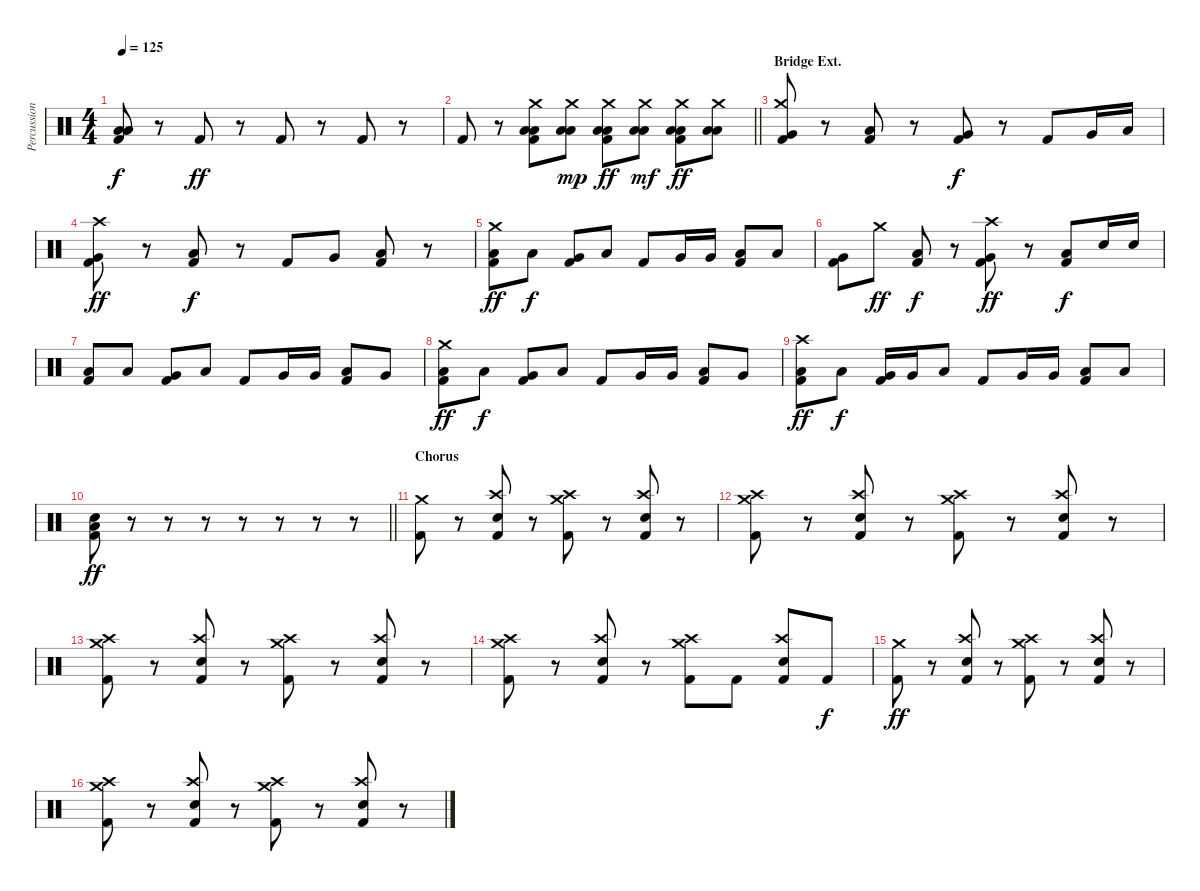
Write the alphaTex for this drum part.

\track ("Percussion" "Percussion") {instrument percussion}
\staff {score}
\articulation defaults
\ts (4 4)
\tempo 125
\clef neutral
\ks c
("Low Floor Tom (hit)" "Low Floor Tom (hit)" "Kick (hit) 2").8{dy f} r.8 "Kick (hit) 2".8{dy ff} r.8 "Kick (hit) 2".8 r.8 "Kick (hit) 2".8 r.8 |
\barLineRight lightlight "Kick (hit) 2".8
r.8 ("Crash medium (hit)" "Low Floor Tom (hit)" "Low Floor Tom (hit)" "Kick (hit) 2").8 ("Crash medium (hit)" "Low Floor Tom (hit)" "Low Floor Tom (hit)").8{dy mp} ("Crash medium (hit)" "Low Floor Tom (hit)" "Low Floor Tom (hit)" "Kick (hit) 2").8{dy ff} ("Crash medium (hit)" "Low Floor Tom (hit)" "Low Floor Tom (hit)").8{dy mf} ("Crash medium (hit)" "Low Floor Tom (hit)" "Low Floor Tom (hit)" "Kick (hit) 2").8{dy ff} ("Crash medium (hit)" "Low Floor Tom (hit)" "Low Floor Tom (hit)").8 |
\section ("" "Bridge Ext.")
("Crash medium (hit)" "Very Low Tom (hit)" "Kick (hit) 2").8 r.8 ("Low Floor Tom (hit)" "Kick (hit) 2").8 r.8 ("Very Low Tom (hit)" "Kick (hit) 2").8{dy f} r.8 "Kick (hit) 2".8 "Very Low Tom (hit)".16 "Low Floor Tom (hit)".16 |
("Crash high (hit)" "Very Low Tom (hit)" "Kick (hit) 2").8{dy ff} r.8 ("Low Floor Tom (hit)" "Kick (hit) 2").8{dy f} r.8 "Kick (hit) 2".8 "Very Low Tom (hit)".8 ("Low Floor Tom (hit)" "Kick (hit) 2").8 r.8 |
("Crash medium (hit)" "Low Floor Tom (hit)" "Kick (hit) 2").8{dy ff} "Low Floor Tom (hit)".8{dy f} ("Very Low Tom (hit)" "Kick (hit) 2").8 "Low Floor Tom (hit)".8 "Kick (hit) 2".8 "Very Low Tom (hit)".16 "Very Low Tom (hit)".16 ("Low Floor Tom (hit)" "Kick (hit) 2").8 "Low Floor Tom (hit)".8 |
("Very Low Tom (hit)" "Kick (hit) 2").8 "Crash medium (hit)".8{dy ff} ("Low Floor Tom (hit)" "Kick (hit) 2").8{dy f} r.8 ("Crash high (hit)" "Very Low Tom (hit)" "Kick (hit) 2").8{dy ff} r.8 ("Low Floor Tom (hit)" "Kick (hit) 2").8{dy f} "Electric Snare (hit)".16 "Electric Snare (hit)".16 |
("Low Floor Tom (hit)" "Kick (hit) 2").8 "Low Floor Tom (hit)".8 ("Very Low Tom (hit)" "Kick (hit) 2").8 "Low Floor Tom (hit)".8 "Kick (hit) 2".8 "Very Low Tom (hit)".16 "Very Low Tom (hit)".16 ("Low Floor Tom (hit)" "Kick (hit) 2").8 "Very Low Tom (hit)".8 |
("Crash medium (hit)" "Low Floor Tom (hit)" "Kick (hit) 2").8{dy ff} "Low Floor Tom (hit)".8{dy f} ("Very Low Tom (hit)" "Kick (hit) 2").8 "Low Floor Tom (hit)".8 "Kick (hit) 2".8 "Very Low Tom (hit)".16 "Very Low Tom (hit)".16 ("Low Floor Tom (hit)" "Kick (hit) 2").8 "Very Low Tom (hit)".8 |
("Crash high (hit)" "Low Floor Tom (hit)" "Kick (hit) 2").8{dy ff} "Low Floor Tom (hit)".8{dy f} ("Very Low Tom (hit)" "Kick (hit) 2").16 "Very Low Tom (hit)".16 "Low Floor Tom (hit)".8 "Kick (hit) 2".8 "Very Low Tom (hit)".16 "Very Low Tom (hit)".16 ("Low Floor Tom (hit)" "Kick (hit) 2").8 "Low Floor Tom (hit)".8 |
\barLineRight lightlight
("Electric Snare (hit)" "Low Floor Tom (hit)" "Kick (hit) 2").8{dy ff} r.8 r.8 r.8 r.8 r.8 r.8 r.8 |
\section ("" "Chorus")
("Crash medium (hit)" "Kick (hit) 2").8 r.8 ("Crash high (hit)" "Electric Snare (hit)" "Kick (hit) 2").8 r.8 ("Crash medium (hit)" "Crash high (hit)" "Kick (hit) 2").8 r.8 ("Crash high (hit)" "Electric Snare (hit)" "Kick (hit) 2").8 r.8 |
("Crash medium (hit)" "Crash high (hit)" "Kick (hit) 2").8 r.8 ("Crash high (hit)" "Electric Snare (hit)" "Kick (hit) 2").8 r.8 ("Crash medium (hit)" "Crash high (hit)" "Kick (hit) 2").8 r.8 ("Crash high (hit)" "Electric Snare (hit)" "Kick (hit) 2").8 r.8 |
("Crash medium (hit)" "Crash high (hit)" "Kick (hit) 2").8 r.8 ("Crash high (hit)" "Electric Snare (hit)" "Kick (hit) 2").8 r.8 ("Crash medium (hit)" "Crash high (hit)" "Kick (hit) 2").8 r.8 ("Crash high (hit)" "Electric Snare (hit)" "Kick (hit) 2").8 r.8 |
("Crash medium (hit)" "Crash high (hit)" "Kick (hit) 2").8 r.8 ("Crash high (hit)" "Electric Snare (hit)" "Kick (hit) 2").8 r.8 ("Crash medium (hit)" "Crash high (hit)" "Kick (hit) 2").8 "Kick (hit) 2".8 ("Crash high (hit)" "Electric Snare (hit)" "Kick (hit) 2").8 "Kick (hit) 2".8{dy f} |
("Crash medium (hit)" "Kick (hit) 2").8{dy ff} r.8 ("Crash high (hit)" "Electric Snare (hit)" "Kick (hit) 2").8 r.8 ("Crash medium (hit)" "Crash high (hit)" "Kick (hit) 2").8 r.8 ("Crash high (hit)" "Electric Snare (hit)" "Kick (hit) 2").8 r.8 |
("Crash medium (hit)" "Crash high (hit)" "Kick (hit) 2").8 r.8 ("Crash high (hit)" "Electric Snare (hit)" "Kick (hit) 2").8 r.8 ("Crash medium (hit)" "Crash high (hit)" "Kick (hit) 2").8 r.8 ("Crash high (hit)" "Electric Snare (hit)" "Kick (hit) 2").8 r.8
